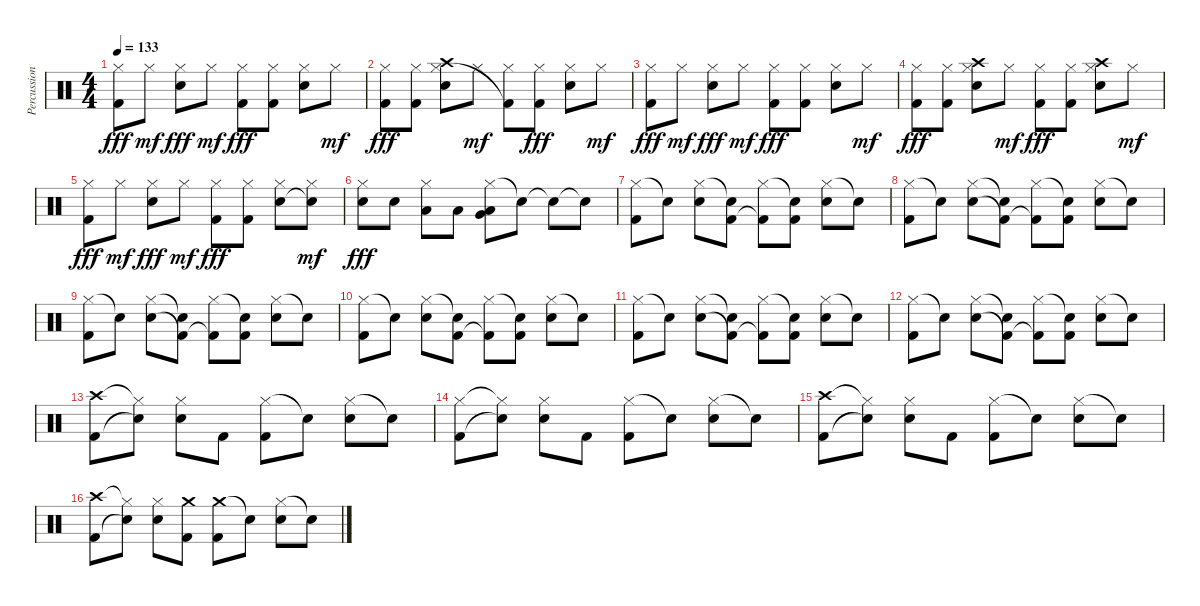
\track ("Percussion" "Percussion") {instrument percussion}
\staff {score}
\articulation defaults
\ts (4 4)
\tempo 133
\clef neutral
\ks c
("Hi-Hat (closed)" "Kick (hit) 2").8{dy fff} "Hi-Hat (closed)".8{dy mf} ("Hi-Hat (closed)" "Electric Snare (hit)").8{dy fff} "Hi-Hat (closed)".8{dy mf} ("Hi-Hat (closed)" "Kick (hit) 2").8{dy fff} ("Hi-Hat (closed)" "Kick (hit) 2").8 ("Hi-Hat (closed)" "Electric Snare (hit)").8 "Hi-Hat (closed)".8{dy mf} |
("Hi-Hat (closed)" "Kick (hit) 2").8{dy fff} ("Hi-Hat (closed)" "Kick (hit) 2").8 ("Crash high (hit)" "Hi-Hat (closed)" "Electric Snare (hit)").8 "Hi-Hat (closed)".8{dy mf} ("Hi-Hat (closed)" "Kick (hit) 2"{t}).8 ("Hi-Hat (closed)" "Kick (hit) 2").8{dy fff} ("Hi-Hat (closed)" "Electric Snare (hit)").8 "Hi-Hat (closed)".8{dy mf} |
("Hi-Hat (closed)" "Kick (hit) 2").8{dy fff} "Hi-Hat (closed)".8{dy mf} ("Hi-Hat (closed)" "Electric Snare (hit)").8{dy fff} "Hi-Hat (closed)".8{dy mf} ("Hi-Hat (closed)" "Kick (hit) 2").8{dy fff} ("Hi-Hat (closed)" "Kick (hit) 2").8 ("Hi-Hat (closed)" "Electric Snare (hit)").8 "Hi-Hat (closed)".8{dy mf} |
("Hi-Hat (closed)" "Kick (hit) 2").8{dy fff} ("Hi-Hat (closed)" "Kick (hit) 2").8 ("Crash high (hit)" "Hi-Hat (closed)" "Electric Snare (hit)").8 "Hi-Hat (closed)".8{dy mf} ("Hi-Hat (closed)" "Kick (hit) 2").8{dy fff} ("Hi-Hat (closed)" "Kick (hit) 2").8 ("Crash high (hit)" "Hi-Hat (closed)" "Electric Snare (hit)").8 "Hi-Hat (closed)".8{dy mf} |
("Hi-Hat (closed)" "Kick (hit) 2").8{dy fff} "Hi-Hat (closed)".8{dy mf} ("Hi-Hat (closed)" "Electric Snare (hit)").8{dy fff} "Hi-Hat (closed)".8{dy mf} ("Hi-Hat (closed)" "Kick (hit) 2").8{dy fff} ("Hi-Hat (closed)" "Kick (hit) 2").8 ("Hi-Hat (closed)" "Electric Snare (hit)").8 ("Hi-Hat (closed)" "Snare (hit)"{t}).8{dy mf} |
("Hi-Hat (closed)" "Electric Snare (hit)").8{dy fff} "Electric Snare (hit)".8 ("Hi-Hat (closed)" "Low Floor Tom (hit)").8 "Low Floor Tom (hit)".8 ("Hi-Hat (closed)" "Very Low Tom (hit)" "Low Floor Tom (hit)").8 "Snare (hit)"{t}.8 "Snare (hit)"{t}.8 "Snare (hit)"{t}.8 |
("Hi-Hat (closed)" "Kick (hit) 2").8 "Snare (hit)"{t}.8 ("Hi-Hat (closed)" "Electric Snare (hit)").8 ("Snare (hit)"{t} "Kick (hit) 2").8 ("Hi-Hat (closed)" "Kick (hit) 2"{t}).8 ("Snare (hit)"{t} "Kick (hit) 2").8 ("Hi-Hat (closed)" "Electric Snare (hit)").8 "Snare (hit)"{t}.8 |
("Hi-Hat (closed)" "Kick (hit) 2").8 "Snare (hit)"{t}.8 ("Hi-Hat (closed)" "Electric Snare (hit)").8 ("Snare (hit)"{t} "Kick (hit) 2"{t}).8 ("Hi-Hat (closed)" "Kick (hit) 2"{t}).8 ("Snare (hit)"{t} "Kick (hit) 2").8 ("Hi-Hat (closed)" "Electric Snare (hit)").8 "Snare (hit)"{t}.8 |
("Hi-Hat (closed)" "Kick (hit) 2").8 "Snare (hit)"{t}.8 ("Hi-Hat (closed)" "Electric Snare (hit)").8 ("Snare (hit)"{t} "Kick (hit) 2"{t}).8 ("Hi-Hat (closed)" "Kick (hit) 2"{t}).8 ("Snare (hit)"{t} "Kick (hit) 2").8 ("Hi-Hat (closed)" "Electric Snare (hit)").8 "Snare (hit)"{t}.8 |
("Hi-Hat (closed)" "Kick (hit) 2").8 "Snare (hit)"{t}.8 ("Hi-Hat (closed)" "Electric Snare (hit)").8 ("Snare (hit)"{t} "Kick (hit) 2").8 ("Hi-Hat (closed)" "Kick (hit) 2"{t}).8 ("Snare (hit)"{t} "Kick (hit) 2").8 ("Hi-Hat (closed)" "Electric Snare (hit)").8 "Snare (hit)"{t}.8 |
("Hi-Hat (closed)" "Kick (hit) 2").8 "Snare (hit)"{t}.8 ("Hi-Hat (closed)" "Electric Snare (hit)").8 ("Snare (hit)"{t} "Kick (hit) 2"{t}).8 ("Hi-Hat (closed)" "Kick (hit) 2"{t}).8 ("Snare (hit)"{t} "Kick (hit) 2").8 ("Hi-Hat (closed)" "Electric Snare (hit)").8 "Snare (hit)"{t}.8 |
("Hi-Hat (closed)" "Kick (hit) 2").8 "Snare (hit)"{t}.8 ("Hi-Hat (closed)" "Electric Snare (hit)").8 ("Snare (hit)"{t} "Kick (hit) 2"{t}).8 ("Hi-Hat (closed)" "Kick (hit) 2"{t}).8 ("Snare (hit)"{t} "Kick (hit) 2").8 ("Hi-Hat (closed)" "Electric Snare (hit)").8 "Snare (hit)"{t}.8 |
("Crash high (hit)" "Kick (hit) 2").8 ("Hi-Hat (closed)"{t} "Snare (hit)"{t}).8 ("Hi-Hat (closed)" "Electric Snare (hit)").8 "Kick (hit) 2".8 ("Hi-Hat (closed)" "Kick (hit) 2").8 "Snare (hit)"{t}.8 ("Hi-Hat (closed)" "Electric Snare (hit)").8 "Snare (hit)"{t}.8 |
("Hi-Hat (closed)" "Kick (hit) 2").8 ("Hi-Hat (closed)"{t} "Snare (hit)"{t}).8 ("Hi-Hat (closed)" "Electric Snare (hit)").8 "Kick (hit) 2".8 ("Hi-Hat (closed)" "Kick (hit) 2").8 "Snare (hit)"{t}.8 ("Hi-Hat (closed)" "Electric Snare (hit)").8 "Snare (hit)"{t}.8 |
("Crash high (hit)" "Kick (hit) 2").8 ("Hi-Hat (closed)"{t} "Snare (hit)"{t}).8 ("Hi-Hat (closed)" "Electric Snare (hit)").8 "Kick (hit) 2".8 ("Hi-Hat (closed)" "Kick (hit) 2").8 "Snare (hit)"{t}.8 ("Hi-Hat (closed)" "Electric Snare (hit)").8 "Snare (hit)"{t}.8 |
("Crash high (hit)" "Kick (hit) 2").8 ("Hi-Hat (closed)"{t} "Snare (hit)"{t}).8 ("Hi-Hat (closed)" "Electric Snare (hit)").8 ("Crash medium (hit)" "Kick (hit) 2").8 ("Crash medium (hit)" "Kick (hit) 2").8 "Snare (hit)"{t}.8 ("Hi-Hat (closed)" "Electric Snare (hit)").8 "Snare (hit)"{t}.8
